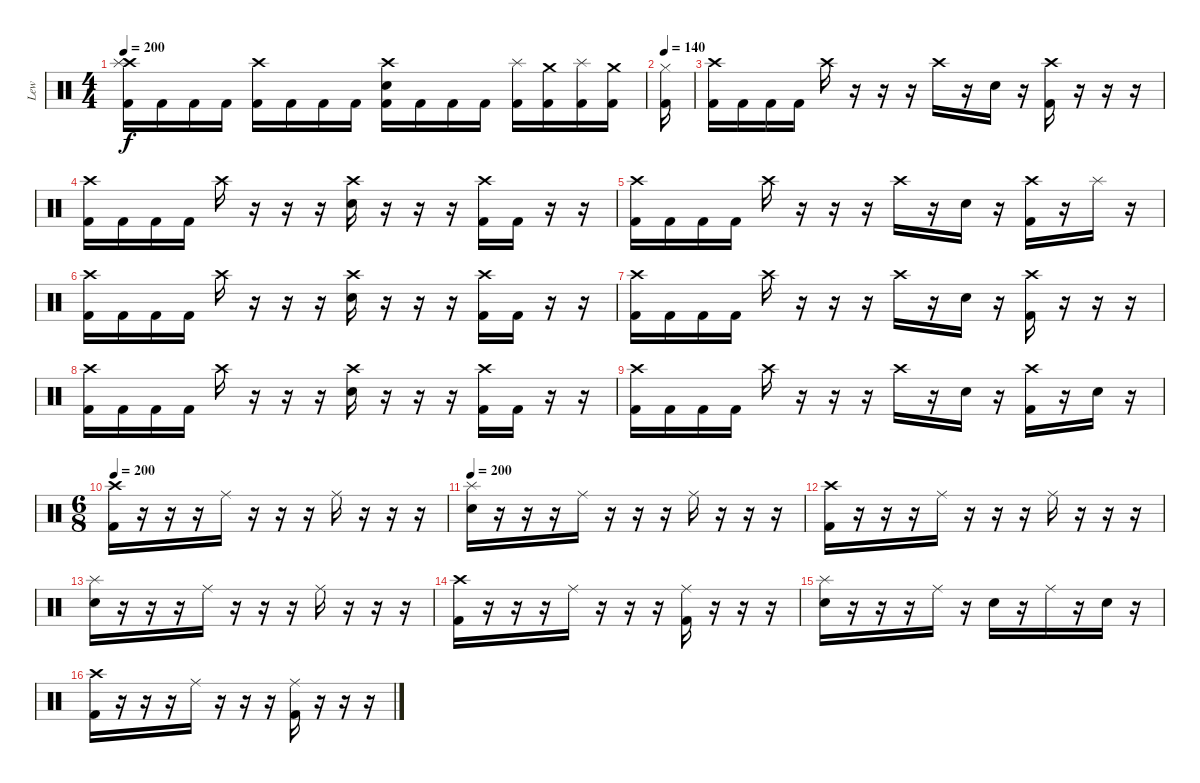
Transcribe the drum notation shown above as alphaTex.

\track ("Lew" "Lew") {instrument percussion}
\staff {score}
\articulation defaults
\ts (4 4)
\tempo 200
\clef neutral
\ks c
("Crash high (hit)" "Splash (hit)" "Kick (hit) 2").16{dy f} "Kick (hit) 2".16 "Kick (hit) 2".16 "Kick (hit) 2".16 ("Crash high (hit)" "Kick (hit) 2").16 "Kick (hit) 2".16 "Kick (hit) 2".16 "Kick (hit) 2".16 ("Crash high (hit)" "Electric Snare (hit)" "Kick (hit) 2").16 "Kick (hit) 2".16 "Kick (hit) 2".16 "Kick (hit) 2".16 ("Splash (hit)" "Kick (hit) 2").16 ("Crash medium (hit)" "Kick (hit) 2").16 ("Splash (hit)" "Kick (hit) 2").16 ("Crash medium (hit)" "Kick (hit) 2").16 |
\tempo 140
("Hi-Hat (closed)" "Kick (hit) 2").16 |
("Crash high (hit)" "Kick (hit) 2").16 "Kick (hit) 2".16 "Kick (hit) 2".16 "Kick (hit) 2".16 "Crash high (hit)".16 r.16 r.16 r.16 "Crash high (hit)".16 r.16 "Electric Snare (hit)".16 r.16 ("Crash high (hit)" "Kick (hit) 2").16 r.16 r.16 r.16 |
("Crash high (hit)" "Kick (hit) 2").16 "Kick (hit) 2".16 "Kick (hit) 2".16 "Kick (hit) 2".16 "Crash high (hit)".16 r.16 r.16 r.16 ("Crash high (hit)" "Electric Snare (hit)").16 r.16 r.16 r.16 ("Crash high (hit)" "Kick (hit) 2").16 "Kick (hit) 2".16 r.16 r.16 |
("Crash high (hit)" "Kick (hit) 2").16 "Kick (hit) 2".16 "Kick (hit) 2".16 "Kick (hit) 2".16 "Crash high (hit)".16 r.16 r.16 r.16 "Crash high (hit)".16 r.16 "Electric Snare (hit)".16 r.16 ("Crash high (hit)" "Kick (hit) 2").16 r.16 "Splash (hit)".16 r.16 |
("Crash high (hit)" "Kick (hit) 2").16 "Kick (hit) 2".16 "Kick (hit) 2".16 "Kick (hit) 2".16 "Crash high (hit)".16 r.16 r.16 r.16 ("Crash high (hit)" "Electric Snare (hit)").16 r.16 r.16 r.16 ("Crash high (hit)" "Kick (hit) 2").16 "Kick (hit) 2".16 r.16 r.16 |
("Crash high (hit)" "Kick (hit) 2").16 "Kick (hit) 2".16 "Kick (hit) 2".16 "Kick (hit) 2".16 "Crash high (hit)".16 r.16 r.16 r.16 "Crash high (hit)".16 r.16 "Electric Snare (hit)".16 r.16 ("Crash high (hit)" "Kick (hit) 2").16 r.16 r.16 r.16 |
("Crash high (hit)" "Kick (hit) 2").16 "Kick (hit) 2".16 "Kick (hit) 2".16 "Kick (hit) 2".16 "Crash high (hit)".16 r.16 r.16 r.16 ("Crash high (hit)" "Electric Snare (hit)").16 r.16 r.16 r.16 ("Crash high (hit)" "Kick (hit) 2").16 "Kick (hit) 2".16 r.16 r.16 |
("Crash high (hit)" "Kick (hit) 2").16 "Kick (hit) 2".16 "Kick (hit) 2".16 "Kick (hit) 2".16 "Crash high (hit)".16 r.16 r.16 r.16 "Crash high (hit)".16 r.16 "Electric Snare (hit)".16 r.16 ("Crash high (hit)" "Kick (hit) 2").16 r.16 "Electric Snare (hit)".16 r.16 |
\ts (6 8)
\tempo 200
("Crash high (hit)" "Kick (hit) 2").16 r.16 r.16 r.16 "Ride (middle)".16 r.16 r.16 r.16 "Ride (middle)".16 r.16 r.16 r.16 |
\tempo 200
("Splash (hit)" "Electric Snare (hit)").16 r.16 r.16 r.16 "Ride (middle)".16 r.16 r.16 r.16 "Ride (middle)".16 r.16 r.16 r.16 |
("Crash high (hit)" "Kick (hit) 2").16 r.16 r.16 r.16 "Ride (middle)".16 r.16 r.16 r.16 "Ride (middle)".16 r.16 r.16 r.16 |
("Splash (hit)" "Electric Snare (hit)").16 r.16 r.16 r.16 "Ride (middle)".16 r.16 r.16 r.16 "Ride (middle)".16 r.16 r.16 r.16 |
("Crash high (hit)" "Kick (hit) 2").16 r.16 r.16 r.16 "Ride (middle)".16 r.16 r.16 r.16 ("Ride (middle)" "Kick (hit) 2").16 r.16 r.16 r.16 |
("Splash (hit)" "Electric Snare (hit)").16 r.16 r.16 r.16 "Ride (middle)".16 r.16 "Electric Snare (hit)".16 r.16 "Ride (middle)".16 r.16 "Electric Snare (hit)".16 r.16 |
("Crash high (hit)" "Kick (hit) 2").16 r.16 r.16 r.16 "Ride (middle)".16 r.16 r.16 r.16 ("Ride (middle)" "Kick (hit) 2").16 r.16 r.16 r.16
